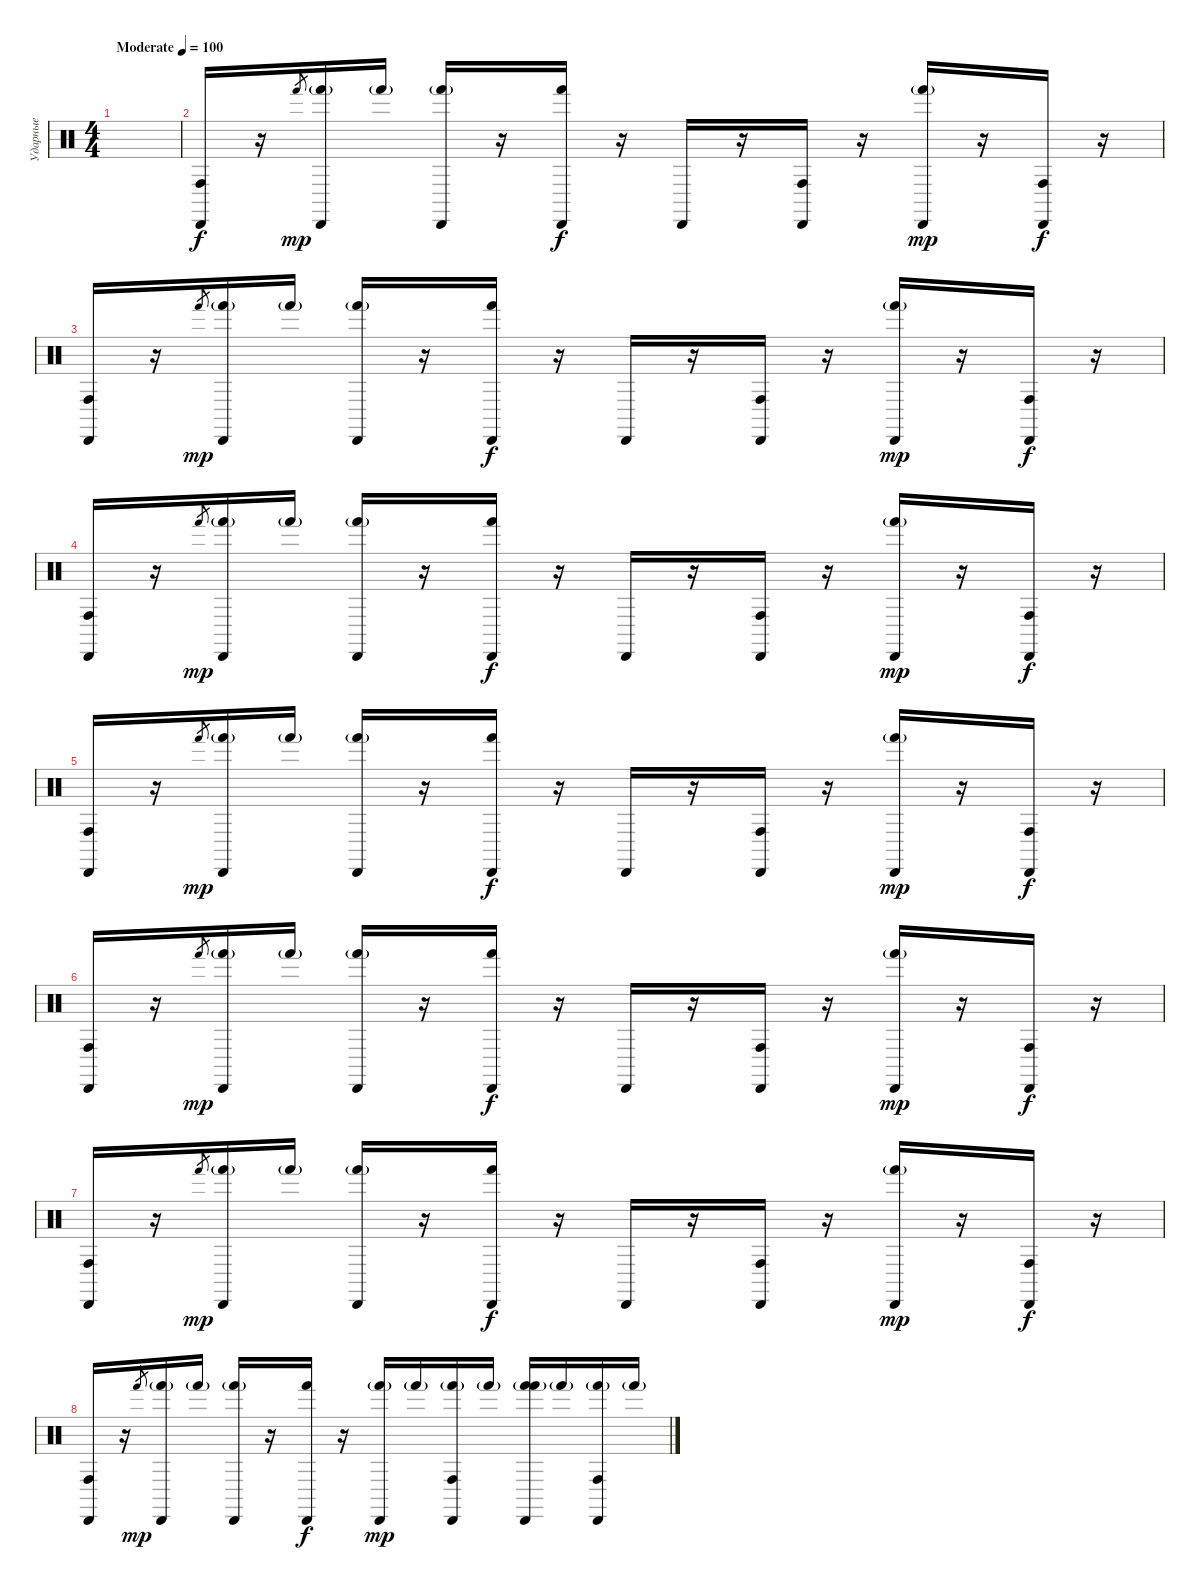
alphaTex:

\track ("Ударные" "Ударные") {instrument percussion}
\staff {score}
\articulation defaults
\ts (4 4)
\tempo (100 "Moderate")
\clef neutral
\ks c
|
("Conga high (hit)" "Cabasa (hit)").16 r.16 "Hand (hit)".8{gr dy mp} ("Hand (hit)"{g} "Cabasa (hit)").16 "Hand (hit)"{g}.16 ("Hand (hit)"{g} "Cabasa (hit)").16 r.16 ("Hand (hit)" "Cabasa (hit)").16{dy f} r.16 "Cabasa (hit)".16 r.16 ("Conga high (hit)" "Cabasa (hit)").16 r.16 ("Hand (hit)"{g} "Cabasa (hit)").16{dy mp} r.16 ("Conga high (hit)" "Cabasa (hit)").16{dy f} r.16 |
("Conga high (hit)" "Cabasa (hit)").16 r.16 "Hand (hit)".8{gr dy mp} ("Hand (hit)"{g} "Cabasa (hit)").16 "Hand (hit)"{g}.16 ("Hand (hit)"{g} "Cabasa (hit)").16 r.16 ("Hand (hit)" "Cabasa (hit)").16{dy f} r.16 "Cabasa (hit)".16 r.16 ("Conga high (hit)" "Cabasa (hit)").16 r.16 ("Hand (hit)"{g} "Cabasa (hit)").16{dy mp} r.16 ("Conga high (hit)" "Cabasa (hit)").16{dy f} r.16 |
("Conga high (hit)" "Cabasa (hit)").16 r.16 "Hand (hit)".8{gr dy mp} ("Hand (hit)"{g} "Cabasa (hit)").16 "Hand (hit)"{g}.16 ("Hand (hit)"{g} "Cabasa (hit)").16 r.16 ("Hand (hit)" "Cabasa (hit)").16{dy f} r.16 "Cabasa (hit)".16 r.16 ("Conga high (hit)" "Cabasa (hit)").16 r.16 ("Hand (hit)"{g} "Cabasa (hit)").16{dy mp} r.16 ("Conga high (hit)" "Cabasa (hit)").16{dy f} r.16 |
("Conga high (hit)" "Cabasa (hit)").16 r.16 "Hand (hit)".8{gr dy mp} ("Hand (hit)"{g} "Cabasa (hit)").16 "Hand (hit)"{g}.16 ("Hand (hit)"{g} "Cabasa (hit)").16 r.16 ("Hand (hit)" "Cabasa (hit)").16{dy f} r.16 "Cabasa (hit)".16 r.16 ("Conga high (hit)" "Cabasa (hit)").16 r.16 ("Hand (hit)"{g} "Cabasa (hit)").16{dy mp} r.16 ("Conga high (hit)" "Cabasa (hit)").16{dy f} r.16 |
("Conga high (hit)" "Cabasa (hit)").16 r.16 "Hand (hit)".8{gr dy mp} ("Hand (hit)"{g} "Cabasa (hit)").16 "Hand (hit)"{g}.16 ("Hand (hit)"{g} "Cabasa (hit)").16 r.16 ("Hand (hit)" "Cabasa (hit)").16{dy f} r.16 "Cabasa (hit)".16 r.16 ("Conga high (hit)" "Cabasa (hit)").16 r.16 ("Hand (hit)"{g} "Cabasa (hit)").16{dy mp} r.16 ("Conga high (hit)" "Cabasa (hit)").16{dy f} r.16 |
("Conga high (hit)" "Cabasa (hit)").16 r.16 "Hand (hit)".8{gr dy mp} ("Hand (hit)"{g} "Cabasa (hit)").16 "Hand (hit)"{g}.16 ("Hand (hit)"{g} "Cabasa (hit)").16 r.16 ("Hand (hit)" "Cabasa (hit)").16{dy f} r.16 "Cabasa (hit)".16 r.16 ("Conga high (hit)" "Cabasa (hit)").16 r.16 ("Hand (hit)"{g} "Cabasa (hit)").16{dy mp} r.16 ("Conga high (hit)" "Cabasa (hit)").16{dy f} r.16 |
("Conga high (hit)" "Cabasa (hit)").16 r.16 "Hand (hit)".8{gr dy mp} ("Hand (hit)"{g} "Cabasa (hit)").16 "Hand (hit)"{g}.16 ("Hand (hit)"{g} "Cabasa (hit)").16 r.16 ("Hand (hit)" "Cabasa (hit)").16{dy f} r.16 ("Hand (hit)"{g} "Cabasa (hit)").16{dy mp} "Hand (hit)"{g}.16 ("Hand (hit)"{g} "Conga high (hit)" "Cabasa (hit)").16 "Hand (hit)"{g}.16 ("Hand (hit)"{g} "Hand (hit)"{g} "Cabasa (hit)").16 "Hand (hit)"{g}.16 ("Hand (hit)"{g} "Conga high (hit)" "Cabasa (hit)").16 "Hand (hit)"{g}.16
